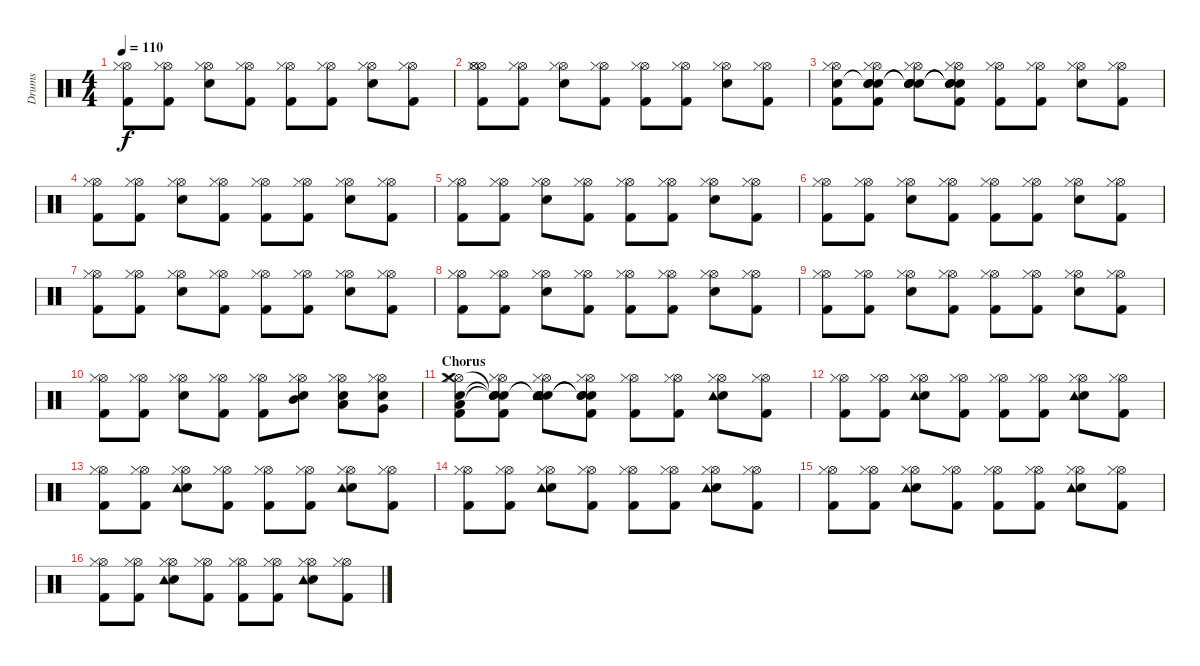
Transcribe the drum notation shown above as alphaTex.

\track ("Drums" "Drums") {instrument percussion}
\staff {score}
\articulation defaults
\ts (4 4)
\tempo 110
\clef neutral
\ks c
("Hi-Hat (open)" "Hi-Hat (closed)" "Kick (hit) 2").8{dy f} ("Hi-Hat (open)" "Hi-Hat (closed)" "Kick (hit) 2").8 ("Hi-Hat (open)" "Hi-Hat (closed)" "Snare (hit) 2").8 ("Hi-Hat (open)" "Hi-Hat (closed)" "Kick (hit) 2").8 ("Hi-Hat (open)" "Hi-Hat (closed)" "Kick (hit) 2").8 ("Hi-Hat (open)" "Hi-Hat (closed)" "Kick (hit) 2").8 ("Hi-Hat (open)" "Hi-Hat (closed)" "Snare (hit) 2").8 ("Hi-Hat (open)" "Hi-Hat (closed)" "Kick (hit) 2").8 |
("Hi-Hat (open)" "Hi-Hat (closed)" "Kick (hit) 2" "Hi-Hat (open)").8 ("Hi-Hat (open)" "Hi-Hat (closed)" "Kick (hit) 2").8 ("Hi-Hat (open)" "Hi-Hat (closed)" "Snare (hit) 2").8 ("Hi-Hat (open)" "Hi-Hat (closed)" "Kick (hit) 2").8 ("Hi-Hat (open)" "Hi-Hat (closed)" "Kick (hit) 2").8 ("Hi-Hat (open)" "Hi-Hat (closed)" "Kick (hit) 2").8 ("Hi-Hat (open)" "Hi-Hat (closed)" "Snare (hit) 2").8 ("Hi-Hat (open)" "Hi-Hat (closed)" "Kick (hit) 2").8 |
("Hi-Hat (open)" "Hi-Hat (closed)" "Electric Snare (hit)" "Kick (hit) 2").8 ("Hi-Hat (open)" "Hi-Hat (closed)" "Snare (hit)"{t} "Kick (hit) 2" "Snare (hit)" "Snare (hit)").8 ("Hi-Hat (open)" "Hi-Hat (closed)" "Snare (hit)"{t} "Snare (hit) 2" "Snare (hit)"{t} "Snare (hit)"{t}).8 ("Hi-Hat (open)" "Hi-Hat (closed)" "Snare (hit)"{t} "Kick (hit) 2" "Snare (hit)"{t} "Snare (hit)"{t}).8 ("Hi-Hat (open)" "Hi-Hat (closed)" "Kick (hit) 2").8 ("Hi-Hat (open)" "Hi-Hat (closed)" "Kick (hit) 2").8 ("Hi-Hat (open)" "Hi-Hat (closed)" "Snare (hit) 2").8 ("Hi-Hat (open)" "Hi-Hat (closed)" "Kick (hit) 2").8 |
("Hi-Hat (open)" "Hi-Hat (closed)" "Kick (hit) 2").8 ("Hi-Hat (open)" "Hi-Hat (closed)" "Kick (hit) 2").8 ("Hi-Hat (open)" "Hi-Hat (closed)" "Snare (hit) 2").8 ("Hi-Hat (open)" "Hi-Hat (closed)" "Kick (hit) 2").8 ("Hi-Hat (open)" "Hi-Hat (closed)" "Kick (hit) 2").8 ("Hi-Hat (open)" "Hi-Hat (closed)" "Kick (hit) 2").8 ("Hi-Hat (open)" "Hi-Hat (closed)" "Snare (hit) 2").8 ("Hi-Hat (open)" "Hi-Hat (closed)" "Kick (hit) 2").8 |
("Hi-Hat (open)" "Hi-Hat (closed)" "Kick (hit) 2").8 ("Hi-Hat (open)" "Hi-Hat (closed)" "Kick (hit) 2").8 ("Hi-Hat (open)" "Hi-Hat (closed)" "Snare (hit) 2").8 ("Hi-Hat (open)" "Hi-Hat (closed)" "Kick (hit) 2").8 ("Hi-Hat (open)" "Hi-Hat (closed)" "Kick (hit) 2").8 ("Hi-Hat (open)" "Hi-Hat (closed)" "Kick (hit) 2").8 ("Hi-Hat (open)" "Hi-Hat (closed)" "Snare (hit) 2").8 ("Hi-Hat (open)" "Hi-Hat (closed)" "Kick (hit) 2").8 |
("Hi-Hat (open)" "Hi-Hat (closed)" "Kick (hit) 2").8 ("Hi-Hat (open)" "Hi-Hat (closed)" "Kick (hit) 2").8 ("Hi-Hat (open)" "Hi-Hat (closed)" "Snare (hit) 2").8 ("Hi-Hat (open)" "Hi-Hat (closed)" "Kick (hit) 2").8 ("Hi-Hat (open)" "Hi-Hat (closed)" "Kick (hit) 2").8 ("Hi-Hat (open)" "Hi-Hat (closed)" "Kick (hit) 2").8 ("Hi-Hat (open)" "Hi-Hat (closed)" "Snare (hit) 2").8 ("Hi-Hat (open)" "Hi-Hat (closed)" "Kick (hit) 2").8 |
("Hi-Hat (open)" "Hi-Hat (closed)" "Kick (hit) 2").8 ("Hi-Hat (open)" "Hi-Hat (closed)" "Kick (hit) 2").8 ("Hi-Hat (open)" "Hi-Hat (closed)" "Snare (hit) 2").8 ("Hi-Hat (open)" "Hi-Hat (closed)" "Kick (hit) 2").8 ("Hi-Hat (open)" "Hi-Hat (closed)" "Kick (hit) 2").8 ("Hi-Hat (open)" "Hi-Hat (closed)" "Kick (hit) 2").8 ("Hi-Hat (open)" "Hi-Hat (closed)" "Snare (hit) 2").8 ("Hi-Hat (open)" "Hi-Hat (closed)" "Kick (hit) 2").8 |
("Hi-Hat (open)" "Hi-Hat (closed)" "Kick (hit) 2").8 ("Hi-Hat (open)" "Hi-Hat (closed)" "Kick (hit) 2").8 ("Hi-Hat (open)" "Hi-Hat (closed)" "Snare (hit) 2").8 ("Hi-Hat (open)" "Hi-Hat (closed)" "Kick (hit) 2").8 ("Hi-Hat (open)" "Hi-Hat (closed)" "Kick (hit) 2").8 ("Hi-Hat (open)" "Hi-Hat (closed)" "Kick (hit) 2").8 ("Hi-Hat (open)" "Hi-Hat (closed)" "Snare (hit) 2").8 ("Hi-Hat (open)" "Hi-Hat (closed)" "Kick (hit) 2").8 |
("Hi-Hat (open)" "Hi-Hat (closed)" "Kick (hit) 2").8 ("Hi-Hat (open)" "Hi-Hat (closed)" "Kick (hit) 2").8 ("Hi-Hat (open)" "Hi-Hat (closed)" "Snare (hit) 2").8 ("Hi-Hat (open)" "Hi-Hat (closed)" "Kick (hit) 2").8 ("Hi-Hat (open)" "Hi-Hat (closed)" "Kick (hit) 2").8 ("Hi-Hat (open)" "Hi-Hat (closed)" "Kick (hit) 2").8 ("Hi-Hat (open)" "Hi-Hat (closed)" "Snare (hit) 2").8 ("Hi-Hat (open)" "Hi-Hat (closed)" "Kick (hit) 2").8 |
("Hi-Hat (open)" "Hi-Hat (closed)" "Kick (hit) 2").8 ("Hi-Hat (open)" "Hi-Hat (closed)" "Kick (hit) 2").8 ("Hi-Hat (open)" "Hi-Hat (closed)" "Snare (hit) 2").8 ("Hi-Hat (open)" "Hi-Hat (closed)" "Kick (hit) 2").8 ("Hi-Hat (open)" "Hi-Hat (closed)" "Kick (hit) 2").8 ("Hi-Hat (open)" "Hi-Hat (closed)" "Snare (hit) 2" "Mid Tom (hit)").8 ("Hi-Hat (open)" "Hi-Hat (closed)" "Snare (hit) 2" "Low Tom (hit)").8 ("Hi-Hat (open)" "Hi-Hat (closed)" "Snare (hit) 2" "Very Low Tom (hit)").8 |
\section ("" "Chorus")
("Hi-Hat (open)" "Hi-Hat (closed)" "Electric Snare (hit)" "Kick (hit) 2" "Low Floor Tom (hit)" "Crash medium (hit)").8 ("Hi-Hat (open)" "Hi-Hat (closed)" "Snare (hit)"{t} "Kick (hit) 2" "Snare (hit)"{t} "Snare (hit)"{t}).8 ("Hi-Hat (open)" "Hi-Hat (closed)" "Snare (hit)"{t} "Snare (hit) 2" "Snare (hit)"{t} "Tambourine (hit)").8 ("Hi-Hat (open)" "Hi-Hat (closed)" "Snare (hit)"{t} "Kick (hit) 2" "Snare (hit)"{t} "Snare (hit)"{t}).8 ("Hi-Hat (open)" "Hi-Hat (closed)" "Kick (hit) 2").8 ("Hi-Hat (open)" "Hi-Hat (closed)" "Kick (hit) 2").8 ("Hi-Hat (open)" "Hi-Hat (closed)" "Snare (hit) 2" "Tambourine (hit)").8 ("Hi-Hat (open)" "Hi-Hat (closed)" "Kick (hit) 2").8 |
("Hi-Hat (open)" "Hi-Hat (closed)" "Kick (hit) 2").8 ("Hi-Hat (open)" "Hi-Hat (closed)" "Kick (hit) 2").8 ("Hi-Hat (open)" "Hi-Hat (closed)" "Snare (hit) 2" "Tambourine (hit)").8 ("Hi-Hat (open)" "Hi-Hat (closed)" "Kick (hit) 2").8 ("Hi-Hat (open)" "Hi-Hat (closed)" "Kick (hit) 2").8 ("Hi-Hat (open)" "Hi-Hat (closed)" "Kick (hit) 2").8 ("Hi-Hat (open)" "Hi-Hat (closed)" "Snare (hit) 2" "Tambourine (hit)").8 ("Hi-Hat (open)" "Hi-Hat (closed)" "Kick (hit) 2").8 |
("Hi-Hat (open)" "Hi-Hat (closed)" "Kick (hit) 2").8 ("Hi-Hat (open)" "Hi-Hat (closed)" "Kick (hit) 2").8 ("Hi-Hat (open)" "Hi-Hat (closed)" "Snare (hit) 2" "Tambourine (hit)").8 ("Hi-Hat (open)" "Hi-Hat (closed)" "Kick (hit) 2").8 ("Hi-Hat (open)" "Hi-Hat (closed)" "Kick (hit) 2").8 ("Hi-Hat (open)" "Hi-Hat (closed)" "Kick (hit) 2").8 ("Hi-Hat (open)" "Hi-Hat (closed)" "Snare (hit) 2" "Tambourine (hit)").8 ("Hi-Hat (open)" "Hi-Hat (closed)" "Kick (hit) 2").8 |
("Hi-Hat (open)" "Hi-Hat (closed)" "Kick (hit) 2").8 ("Hi-Hat (open)" "Hi-Hat (closed)" "Kick (hit) 2").8 ("Hi-Hat (open)" "Hi-Hat (closed)" "Snare (hit) 2" "Tambourine (hit)").8 ("Hi-Hat (open)" "Hi-Hat (closed)" "Kick (hit) 2").8 ("Hi-Hat (open)" "Hi-Hat (closed)" "Kick (hit) 2").8 ("Hi-Hat (open)" "Hi-Hat (closed)" "Kick (hit) 2").8 ("Hi-Hat (open)" "Hi-Hat (closed)" "Snare (hit) 2" "Tambourine (hit)").8 ("Hi-Hat (open)" "Hi-Hat (closed)" "Kick (hit) 2").8 |
("Hi-Hat (open)" "Hi-Hat (closed)" "Kick (hit) 2").8 ("Hi-Hat (open)" "Hi-Hat (closed)" "Kick (hit) 2").8 ("Hi-Hat (open)" "Hi-Hat (closed)" "Snare (hit) 2" "Tambourine (hit)").8 ("Hi-Hat (open)" "Hi-Hat (closed)" "Kick (hit) 2").8 ("Hi-Hat (open)" "Hi-Hat (closed)" "Kick (hit) 2").8 ("Hi-Hat (open)" "Hi-Hat (closed)" "Kick (hit) 2").8 ("Hi-Hat (open)" "Hi-Hat (closed)" "Snare (hit) 2" "Tambourine (hit)").8 ("Hi-Hat (open)" "Hi-Hat (closed)" "Kick (hit) 2").8 |
("Hi-Hat (open)" "Hi-Hat (closed)" "Kick (hit) 2").8 ("Hi-Hat (open)" "Hi-Hat (closed)" "Kick (hit) 2").8 ("Hi-Hat (open)" "Hi-Hat (closed)" "Snare (hit) 2" "Tambourine (hit)").8 ("Hi-Hat (open)" "Hi-Hat (closed)" "Kick (hit) 2").8 ("Hi-Hat (open)" "Hi-Hat (closed)" "Kick (hit) 2").8 ("Hi-Hat (open)" "Hi-Hat (closed)" "Kick (hit) 2").8 ("Hi-Hat (open)" "Hi-Hat (closed)" "Snare (hit) 2" "Tambourine (hit)").8 ("Hi-Hat (open)" "Hi-Hat (closed)" "Kick (hit) 2").8
